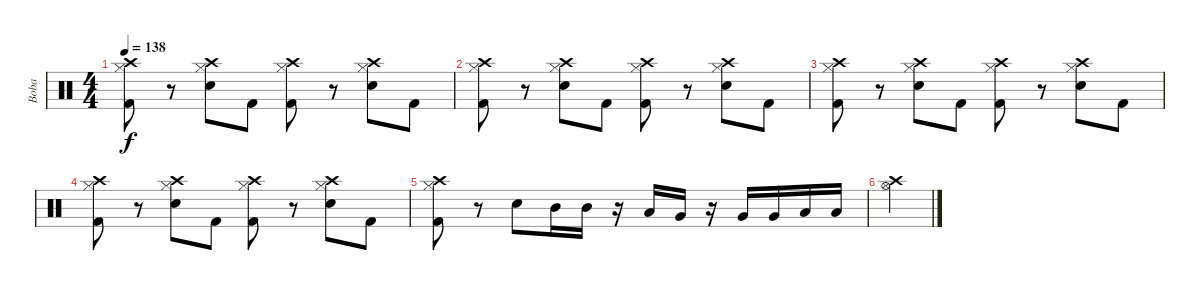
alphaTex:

\track ("Boba" "Boba") {instrument percussion}
\staff {score}
\articulation defaults
\ts (4 4)
\tempo 138
\clef neutral
\ks c
("Crash high (hit)" "Hi-Hat (closed)" "Kick (hit) 2").8{dy f} r.8 ("Crash high (hit)" "Hi-Hat (closed)" "Electric Snare (hit)").8 "Kick (hit) 2".8 ("Crash high (hit)" "Hi-Hat (closed)" "Kick (hit) 2").8 r.8 ("Crash high (hit)" "Hi-Hat (closed)" "Electric Snare (hit)").8 "Kick (hit) 2".8 |
("Crash high (hit)" "Hi-Hat (closed)" "Kick (hit) 2").8 r.8 ("Crash high (hit)" "Hi-Hat (closed)" "Electric Snare (hit)").8 "Kick (hit) 2".8 ("Crash high (hit)" "Hi-Hat (closed)" "Kick (hit) 2").8 r.8 ("Crash high (hit)" "Hi-Hat (closed)" "Electric Snare (hit)").8 "Kick (hit) 2".8 |
("Crash high (hit)" "Hi-Hat (closed)" "Kick (hit) 2").8 r.8 ("Crash high (hit)" "Hi-Hat (closed)" "Electric Snare (hit)").8 "Kick (hit) 2".8 ("Crash high (hit)" "Hi-Hat (closed)" "Kick (hit) 2").8 r.8 ("Crash high (hit)" "Hi-Hat (closed)" "Electric Snare (hit)").8 "Kick (hit) 2".8 |
("Crash high (hit)" "Hi-Hat (closed)" "Kick (hit) 2").8 r.8 ("Crash high (hit)" "Hi-Hat (closed)" "Electric Snare (hit)").8 "Kick (hit) 2".8 ("Crash high (hit)" "Hi-Hat (closed)" "Kick (hit) 2").8 r.8 ("Crash high (hit)" "Hi-Hat (closed)" "Electric Snare (hit)").8 "Kick (hit) 2".8 |
("Crash high (hit)" "Hi-Hat (closed)" "Kick (hit) 2").8 r.8 "Electric Snare (hit)".8 "Mid Tom (hit)".16 "Mid Tom (hit)".16 r.16 "Low Tom (hit)".16 "Very Low Tom (hit)".16 r.16 "Very Low Tom (hit)".16 "Very Low Tom (hit)".16 "Low Floor Tom (hit)".16 "Low Floor Tom (hit)".16 |
("Crash high (hit)" "Hi-Hat (open)").4
